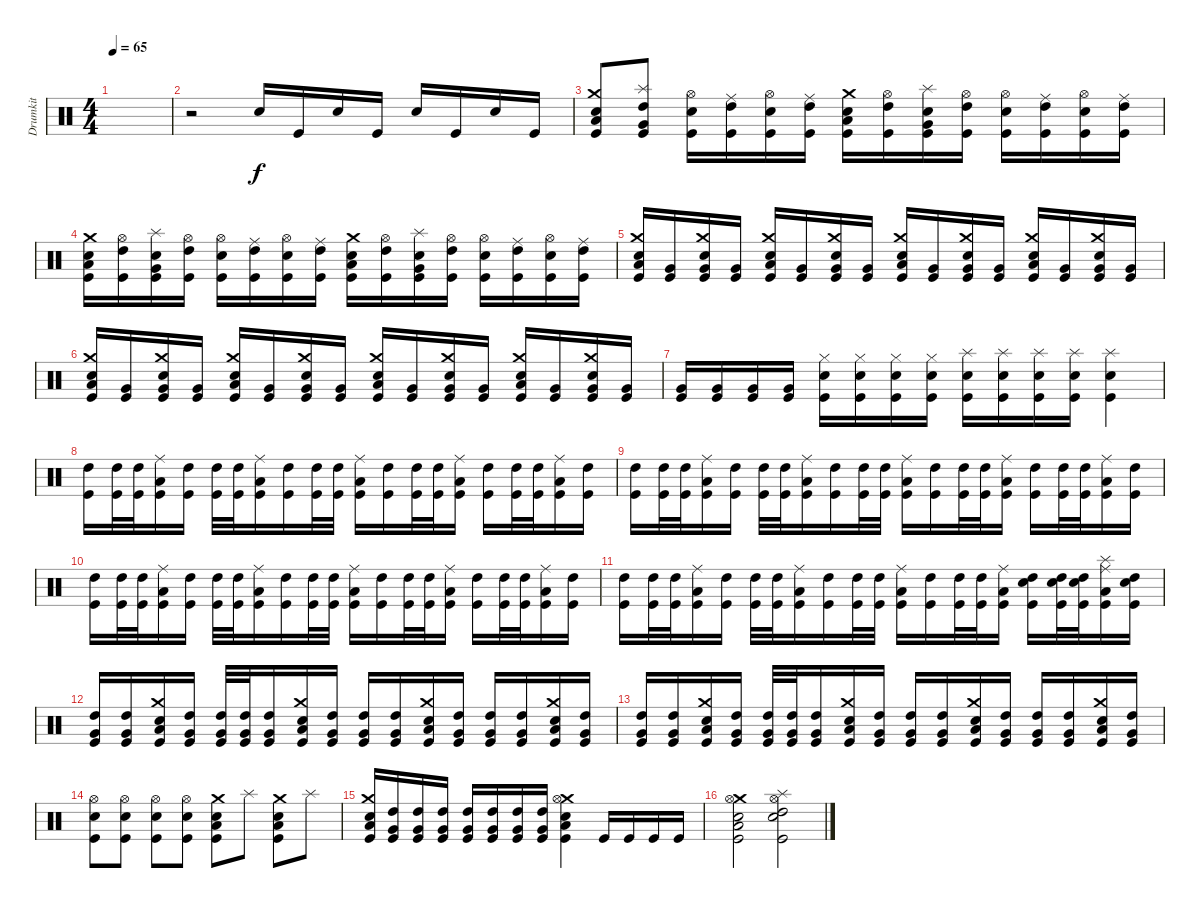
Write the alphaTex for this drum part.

\track ("Drumkit" "Drumkit") {instrument percussion}
\staff {score}
\articulation defaults
\ts (4 4)
\tempo 65
\clef neutral
\ks c
|
r.2 "Snare (hit) 2".16 "Kick (hit)".16 "Snare (hit) 2".16 "Kick (hit)".16 "Snare (hit) 2".16 "Kick (hit)".16 "Snare (hit) 2".16 "Kick (hit)".16 |
("Kick (hit)" "Snare (hit) 2" "Crash medium (hit)" "Low Tom (hit)").8 ("Kick (hit)" "Splash (hit)" "High Tom (hit)" "Very Low Tom (hit)").8 ("Snare (hit) 2" "Hi-Hat (open)" "Kick (hit)").16 ("Kick (hit)" "Ride (middle)" "High Tom (hit)").16 ("Snare (hit) 2" "Hi-Hat (open)" "Kick (hit)").16 ("Kick (hit)" "Ride (middle)" "High Tom (hit)").16 ("Kick (hit)" "Snare (hit) 2" "Crash medium (hit)" "Low Tom (hit)").16 ("Kick (hit)" "Hi-Hat (open)" "High Tom (hit)").16 ("Kick (hit)" "Splash (hit)" "Very Low Tom (hit)" "Snare (hit) 2").16 ("Kick (hit)" "Hi-Hat (open)" "High Tom (hit)").16 ("Snare (hit) 2" "Hi-Hat (open)" "Kick (hit)").16 ("Kick (hit)" "Ride (middle)" "High Tom (hit)").16 ("Snare (hit) 2" "Hi-Hat (open)" "Kick (hit)").16 ("Kick (hit)" "Ride (middle)" "High Tom (hit)").16 |
("Kick (hit)" "Snare (hit) 2" "Crash medium (hit)" "Low Tom (hit)").16 ("Kick (hit)" "Hi-Hat (open)" "High Tom (hit)").16 ("Kick (hit)" "Splash (hit)" "Very Low Tom (hit)" "Snare (hit) 2").16 ("Kick (hit)" "Hi-Hat (open)" "High Tom (hit)").16 ("Snare (hit) 2" "Hi-Hat (open)" "Kick (hit)").16 ("Kick (hit)" "Ride (middle)" "High Tom (hit)").16 ("Snare (hit) 2" "Hi-Hat (open)" "Kick (hit)").16 ("Kick (hit)" "Ride (middle)" "High Tom (hit)").16 ("Kick (hit)" "Snare (hit) 2" "Crash medium (hit)" "Low Tom (hit)").16 ("Kick (hit)" "Hi-Hat (open)" "High Tom (hit)").16 ("Kick (hit)" "Splash (hit)" "Very Low Tom (hit)" "Snare (hit) 2").16 ("Kick (hit)" "Hi-Hat (open)" "High Tom (hit)").16 ("Snare (hit) 2" "Hi-Hat (open)" "Kick (hit)").16 ("Kick (hit)" "Ride (middle)" "High Tom (hit)").16 ("Snare (hit) 2" "Hi-Hat (open)" "Kick (hit)").16 ("Kick (hit)" "Ride (middle)" "High Tom (hit)").16 |
("Kick (hit)" "Snare (hit) 2" "Crash medium (hit)" "Low Tom (hit)").16 ("Kick (hit)" "Very Low Tom (hit)").16 ("Kick (hit)" "Very Low Tom (hit)" "Snare (hit) 2" "Crash medium (hit)").16 ("Kick (hit)" "Very Low Tom (hit)").16 ("Kick (hit)" "Snare (hit) 2" "Crash medium (hit)" "Low Tom (hit)").16 ("Kick (hit)" "Very Low Tom (hit)").16 ("Kick (hit)" "Very Low Tom (hit)" "Snare (hit) 2" "Crash medium (hit)").16 ("Kick (hit)" "Very Low Tom (hit)").16 ("Kick (hit)" "Snare (hit) 2" "Crash medium (hit)" "Low Tom (hit)").16 ("Kick (hit)" "Very Low Tom (hit)").16 ("Kick (hit)" "Very Low Tom (hit)" "Snare (hit) 2" "Crash medium (hit)").16 ("Kick (hit)" "Very Low Tom (hit)").16 ("Kick (hit)" "Snare (hit) 2" "Crash medium (hit)" "Low Tom (hit)").16 ("Kick (hit)" "Very Low Tom (hit)").16 ("Kick (hit)" "Very Low Tom (hit)" "Snare (hit) 2" "Crash medium (hit)").16 ("Kick (hit)" "Very Low Tom (hit)").16 |
("Kick (hit)" "Snare (hit) 2" "Crash medium (hit)" "Low Tom (hit)").16 ("Kick (hit)" "Very Low Tom (hit)").16 ("Kick (hit)" "Very Low Tom (hit)" "Snare (hit) 2" "Crash medium (hit)").16 ("Kick (hit)" "Very Low Tom (hit)").16 ("Kick (hit)" "Snare (hit) 2" "Crash medium (hit)" "Low Tom (hit)").16 ("Kick (hit)" "Very Low Tom (hit)").16 ("Kick (hit)" "Very Low Tom (hit)" "Snare (hit) 2" "Crash medium (hit)").16 ("Kick (hit)" "Very Low Tom (hit)").16 ("Kick (hit)" "Snare (hit) 2" "Crash medium (hit)" "Low Tom (hit)").16 ("Kick (hit)" "Very Low Tom (hit)").16 ("Kick (hit)" "Very Low Tom (hit)" "Snare (hit) 2" "Crash medium (hit)").16 ("Kick (hit)" "Very Low Tom (hit)").16 ("Kick (hit)" "Snare (hit) 2" "Crash medium (hit)" "Low Tom (hit)").16 ("Kick (hit)" "Very Low Tom (hit)").16 ("Kick (hit)" "Very Low Tom (hit)" "Snare (hit) 2" "Crash medium (hit)").16 ("Kick (hit)" "Very Low Tom (hit)").16 |
("Kick (hit)" "Very Low Tom (hit)").16 ("Kick (hit)" "Very Low Tom (hit)").16 ("Kick (hit)" "Very Low Tom (hit)").16 ("Kick (hit)" "Very Low Tom (hit)").16 ("Kick (hit)" "Snare (hit) 2" "Hi-Hat (closed)").16 ("Kick (hit)" "Snare (hit) 2" "Hi-Hat (closed)").16 ("Kick (hit)" "Snare (hit) 2" "Hi-Hat (closed)").16 ("Kick (hit)" "Snare (hit) 2" "Hi-Hat (closed)").16 ("Kick (hit)" "Snare (hit) 2" "Splash (hit)").16 ("Kick (hit)" "Snare (hit) 2" "Splash (hit)").16 ("Kick (hit)" "Snare (hit) 2" "Splash (hit)").16 ("Kick (hit)" "Snare (hit) 2" "Splash (hit)").16 ("Kick (hit)" "Snare (hit) 2" "Splash (hit)").4 |
("Kick (hit)" "High Tom (hit)").16 ("Kick (hit)" "High Tom (hit)").32 ("Kick (hit)" "High Tom (hit)").32 ("Kick (hit)" "Low Tom (hit)" "Ride (middle)").16 ("Kick (hit)" "High Tom (hit)").16 ("Kick (hit)" "High Tom (hit)").32 ("Kick (hit)" "High Tom (hit)").32 ("Kick (hit)" "Low Tom (hit)" "Ride (middle)").16 ("Kick (hit)" "High Tom (hit)").16 ("Kick (hit)" "High Tom (hit)").32 ("Kick (hit)" "High Tom (hit)").32 ("Kick (hit)" "Low Tom (hit)" "Ride (middle)").16 ("Kick (hit)" "High Tom (hit)").16 ("Kick (hit)" "High Tom (hit)").32 ("Kick (hit)" "High Tom (hit)").32 ("Kick (hit)" "Low Tom (hit)" "Ride (middle)").16 ("Kick (hit)" "High Tom (hit)").16 ("Kick (hit)" "High Tom (hit)").32 ("Kick (hit)" "High Tom (hit)").32 ("Kick (hit)" "Low Tom (hit)" "Ride (middle)").16 ("Kick (hit)" "High Tom (hit)").16 |
("Kick (hit)" "High Tom (hit)").16 ("Kick (hit)" "High Tom (hit)").32 ("Kick (hit)" "High Tom (hit)").32 ("Kick (hit)" "Low Tom (hit)" "Ride (middle)").16 ("Kick (hit)" "High Tom (hit)").16 ("Kick (hit)" "High Tom (hit)").32 ("Kick (hit)" "High Tom (hit)").32 ("Kick (hit)" "Low Tom (hit)" "Ride (middle)").16 ("Kick (hit)" "High Tom (hit)").16 ("Kick (hit)" "High Tom (hit)").32 ("Kick (hit)" "High Tom (hit)").32 ("Kick (hit)" "Low Tom (hit)" "Ride (middle)").16 ("Kick (hit)" "High Tom (hit)").16 ("Kick (hit)" "High Tom (hit)").32 ("Kick (hit)" "High Tom (hit)").32 ("Kick (hit)" "Low Tom (hit)" "Ride (middle)").16 ("Kick (hit)" "High Tom (hit)").16 ("Kick (hit)" "High Tom (hit)").32 ("Kick (hit)" "High Tom (hit)").32 ("Kick (hit)" "Low Tom (hit)" "Ride (middle)").16 ("Kick (hit)" "High Tom (hit)").16 |
("Kick (hit)" "High Tom (hit)").16 ("Kick (hit)" "High Tom (hit)").32 ("Kick (hit)" "High Tom (hit)").32 ("Kick (hit)" "Low Tom (hit)" "Ride (middle)").16 ("Kick (hit)" "High Tom (hit)").16 ("Kick (hit)" "High Tom (hit)").32 ("Kick (hit)" "High Tom (hit)").32 ("Kick (hit)" "Low Tom (hit)" "Ride (middle)").16 ("Kick (hit)" "High Tom (hit)").16 ("Kick (hit)" "High Tom (hit)").32 ("Kick (hit)" "High Tom (hit)").32 ("Kick (hit)" "Low Tom (hit)" "Ride (middle)").16 ("Kick (hit)" "High Tom (hit)").16 ("Kick (hit)" "High Tom (hit)").32 ("Kick (hit)" "High Tom (hit)").32 ("Kick (hit)" "Low Tom (hit)" "Ride (middle)").16 ("Kick (hit)" "High Tom (hit)").16 ("Kick (hit)" "High Tom (hit)").32 ("Kick (hit)" "High Tom (hit)").32 ("Kick (hit)" "Low Tom (hit)" "Ride (middle)").16 ("Kick (hit)" "High Tom (hit)").16 |
("Kick (hit)" "High Tom (hit)").16 ("Kick (hit)" "High Tom (hit)").32 ("Kick (hit)" "High Tom (hit)").32 ("Kick (hit)" "Low Tom (hit)" "Ride (middle)").16 ("Kick (hit)" "High Tom (hit)").16 ("Kick (hit)" "High Tom (hit)").32 ("Kick (hit)" "High Tom (hit)").32 ("Kick (hit)" "Low Tom (hit)" "Ride (middle)").16 ("Kick (hit)" "High Tom (hit)").16 ("Kick (hit)" "High Tom (hit)").32 ("Kick (hit)" "High Tom (hit)").32 ("Kick (hit)" "Low Tom (hit)" "Ride (middle)").16 ("Kick (hit)" "High Tom (hit)").16 ("Kick (hit)" "High Tom (hit)").32 ("Kick (hit)" "High Tom (hit)").32 ("Kick (hit)" "Low Tom (hit)" "Ride (middle)").16 ("Kick (hit)" "High Tom (hit)" "Snare (hit) 2").16 ("Kick (hit)" "High Tom (hit)" "Snare (hit) 2").32 ("Kick (hit)" "High Tom (hit)" "Snare (hit) 2").32 ("Kick (hit)" "Low Tom (hit)" "Ride (middle)" "Splash (hit)").16 ("Kick (hit)" "High Tom (hit)" "Snare (hit) 2").16 |
("Kick (hit)" "Very Low Tom (hit)" "High Tom (hit)").16{dy f} ("Kick (hit)" "Very Low Tom (hit)" "High Tom (hit)").16 ("Kick (hit)" "Snare (hit) 2" "Low Tom (hit)" "Crash medium (hit)").16 ("Kick (hit)" "Very Low Tom (hit)" "High Tom (hit)").16 ("Kick (hit)" "Very Low Tom (hit)" "High Tom (hit)").32 ("Kick (hit)" "Very Low Tom (hit)" "High Tom (hit)").32 ("Kick (hit)" "Very Low Tom (hit)" "High Tom (hit)").16 ("Kick (hit)" "Snare (hit) 2" "Low Tom (hit)" "Crash medium (hit)").16 ("Kick (hit)" "Very Low Tom (hit)" "High Tom (hit)").16 ("Kick (hit)" "Very Low Tom (hit)" "High Tom (hit)").16 ("Kick (hit)" "Very Low Tom (hit)" "High Tom (hit)").16 ("Kick (hit)" "Snare (hit) 2" "Low Tom (hit)" "Crash medium (hit)").16 ("Kick (hit)" "Very Low Tom (hit)" "High Tom (hit)").16 ("Kick (hit)" "Very Low Tom (hit)" "High Tom (hit)").16 ("Kick (hit)" "Very Low Tom (hit)" "High Tom (hit)").16 ("Kick (hit)" "Snare (hit) 2" "Low Tom (hit)" "Crash medium (hit)").16 ("Kick (hit)" "Very Low Tom (hit)" "High Tom (hit)").16 |
("Kick (hit)" "Very Low Tom (hit)" "High Tom (hit)").16 ("Kick (hit)" "Very Low Tom (hit)" "High Tom (hit)").16 ("Kick (hit)" "Snare (hit) 2" "Low Tom (hit)" "Crash medium (hit)").16 ("Kick (hit)" "Very Low Tom (hit)" "High Tom (hit)").16 ("Kick (hit)" "Very Low Tom (hit)" "High Tom (hit)").32 ("Kick (hit)" "Very Low Tom (hit)" "High Tom (hit)").32 ("Kick (hit)" "Very Low Tom (hit)" "High Tom (hit)").16 ("Kick (hit)" "Snare (hit) 2" "Low Tom (hit)" "Crash medium (hit)").16 ("Kick (hit)" "Very Low Tom (hit)" "High Tom (hit)").16 ("Kick (hit)" "Very Low Tom (hit)" "High Tom (hit)").16 ("Kick (hit)" "Very Low Tom (hit)" "High Tom (hit)").16 ("Kick (hit)" "Snare (hit) 2" "Low Tom (hit)" "Crash medium (hit)").16 ("Kick (hit)" "Very Low Tom (hit)" "High Tom (hit)").16 ("Kick (hit)" "Very Low Tom (hit)" "High Tom (hit)").16 ("Kick (hit)" "Very Low Tom (hit)" "High Tom (hit)").16 ("Kick (hit)" "Snare (hit) 2" "Low Tom (hit)" "Crash medium (hit)").16 ("Kick (hit)" "Very Low Tom (hit)" "High Tom (hit)").16 |
("Kick (hit)" "Snare (hit) 2" "Hi-Hat (open)").8 ("Kick (hit)" "Snare (hit) 2" "Hi-Hat (open)").8 ("Kick (hit)" "Snare (hit) 2" "Hi-Hat (open)").8 ("Kick (hit)" "Snare (hit) 2" "Hi-Hat (open)").8 ("Kick (hit)" "Snare (hit) 2" "Crash medium (hit)" "Low Tom (hit)").8 "Splash (hit)".8 ("Kick (hit)" "Snare (hit) 2" "Crash medium (hit)" "Low Tom (hit)").8 "Splash (hit)".8 |
("Kick (hit)" "Snare (hit) 2" "Low Tom (hit)" "Crash medium (hit)").16 ("Kick (hit)" "Very Low Tom (hit)" "High Tom (hit)").16 ("Kick (hit)" "Very Low Tom (hit)" "High Tom (hit)").16 ("Kick (hit)" "Very Low Tom (hit)" "High Tom (hit)").16 ("Kick (hit)" "Very Low Tom (hit)" "High Tom (hit)").16 ("Kick (hit)" "Very Low Tom (hit)" "High Tom (hit)").16 ("Kick (hit)" "Very Low Tom (hit)" "High Tom (hit)").16 ("Kick (hit)" "Very Low Tom (hit)" "High Tom (hit)").16 ("Kick (hit)" "Snare (hit) 2" "Crash medium (hit)" "Low Tom (hit)" "Hi-Hat (open)").4 "Kick (hit)".16 "Kick (hit)".16 "Kick (hit)".16 "Kick (hit)".16 |
("Kick (hit)" "Snare (hit) 2" "Crash medium (hit)" "Low Tom (hit)" "Hi-Hat (open)").2 ("Kick (hit)" "Snare (hit) 2" "Hi-Hat (open)" "Splash (hit)" "High Tom (hit)").2
